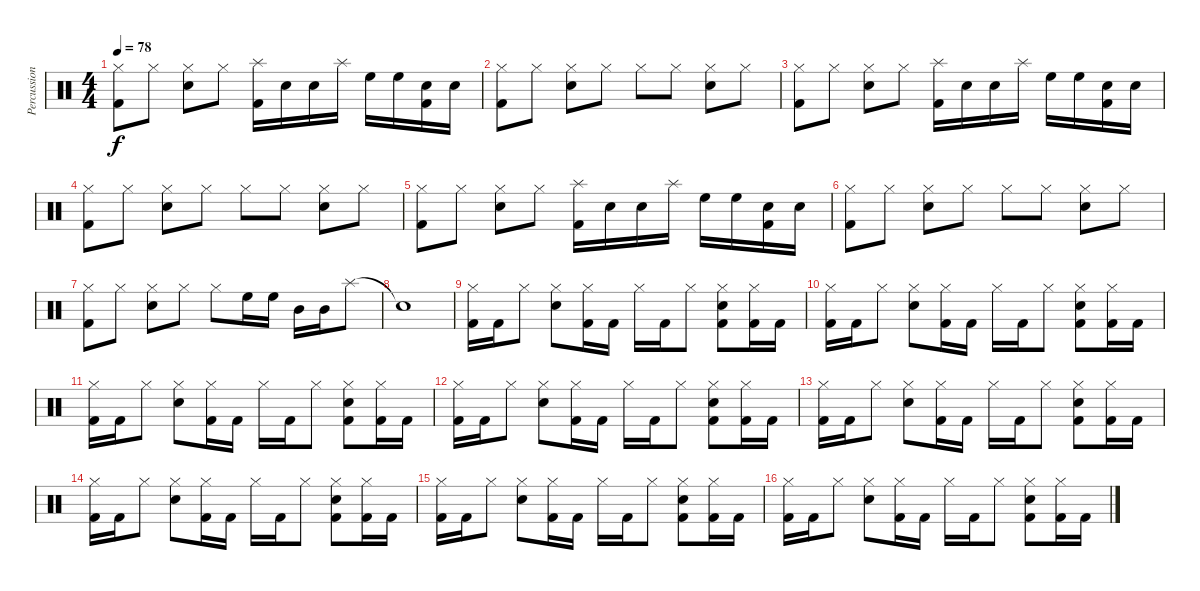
\track ("Percussion" "Percussion") {instrument percussion}
\staff {score}
\articulation defaults
\ts (4 4)
\tempo 78
\clef neutral
\ks c
("Hi-Hat (closed)" "Kick (hit) 2").8{dy f} "Hi-Hat (closed)".8 ("Hi-Hat (closed)" "Snare (hit) 2").8 "Hi-Hat (closed)".8 ("Splash (hit)" "Kick (hit) 2").16 "Snare (hit) 2".16 "Snare (hit) 2".16 "Splash (hit)".16 "High Floor Tom (hit)".16 "High Floor Tom (hit)".16 ("Electric Snare (hit)" "Kick (hit) 2").16 "Electric Snare (hit)".16 |
("Hi-Hat (closed)" "Kick (hit) 2").8 "Hi-Hat (closed)".8 ("Hi-Hat (closed)" "Snare (hit) 2").8 "Hi-Hat (closed)".8 "Hi-Hat (closed)".8 "Hi-Hat (closed)".8 ("Hi-Hat (closed)" "Snare (hit) 2").8 "Hi-Hat (closed)".8 |
("Hi-Hat (closed)" "Kick (hit) 2").8 "Hi-Hat (closed)".8 ("Hi-Hat (closed)" "Snare (hit) 2").8 "Hi-Hat (closed)".8 ("Splash (hit)" "Kick (hit) 2").16 "Snare (hit) 2".16 "Snare (hit) 2".16 "Splash (hit)".16 "High Floor Tom (hit)".16 "High Floor Tom (hit)".16 ("Electric Snare (hit)" "Kick (hit) 2").16 "Electric Snare (hit)".16 |
("Hi-Hat (closed)" "Kick (hit) 2").8 "Hi-Hat (closed)".8 ("Hi-Hat (closed)" "Snare (hit) 2").8 "Hi-Hat (closed)".8 "Hi-Hat (closed)".8 "Hi-Hat (closed)".8 ("Hi-Hat (closed)" "Snare (hit) 2").8 "Hi-Hat (closed)".8 |
("Hi-Hat (closed)" "Kick (hit) 2").8 "Hi-Hat (closed)".8 ("Hi-Hat (closed)" "Snare (hit) 2").8 "Hi-Hat (closed)".8 ("Splash (hit)" "Kick (hit) 2").16 "Snare (hit) 2".16 "Snare (hit) 2".16 "Splash (hit)".16 "High Floor Tom (hit)".16 "High Floor Tom (hit)".16 ("Electric Snare (hit)" "Kick (hit) 2").16 "Electric Snare (hit)".16 |
("Hi-Hat (closed)" "Kick (hit) 2").8 "Hi-Hat (closed)".8 ("Hi-Hat (closed)" "Snare (hit) 2").8 "Hi-Hat (closed)".8 "Hi-Hat (closed)".8 "Hi-Hat (closed)".8 ("Hi-Hat (closed)" "Snare (hit) 2").8 "Hi-Hat (closed)".8 |
("Hi-Hat (closed)" "Kick (hit) 2").8 "Hi-Hat (closed)".8 ("Hi-Hat (closed)" "Snare (hit) 2").8 "Hi-Hat (closed)".8 "Hi-Hat (closed)".8 "High Floor Tom (hit)".16 "High Floor Tom (hit)".16 "Mid Tom (hit)".16 "Mid Tom (hit)".16 "Splash (hit)".8 |
"Snare (hit)"{t}.1 |
("Hi-Hat (closed)" "Kick (hit) 2").16 "Kick (hit) 2".16 "Hi-Hat (closed)".8 ("Hi-Hat (closed)" "Snare (hit) 2").8 ("Hi-Hat (closed)" "Kick (hit) 2").16 "Kick (hit) 2".16 "Hi-Hat (closed)".16 "Kick (hit) 2".16 "Hi-Hat (closed)".8 ("Hi-Hat (closed)" "Snare (hit) 2" "Kick (hit) 2").8 ("Hi-Hat (closed)" "Kick (hit) 2").16 "Kick (hit) 2".16 |
("Hi-Hat (closed)" "Kick (hit) 2").16 "Kick (hit) 2".16 "Hi-Hat (closed)".8 ("Hi-Hat (closed)" "Snare (hit) 2").8 ("Hi-Hat (closed)" "Kick (hit) 2").16 "Kick (hit) 2".16 "Hi-Hat (closed)".16 "Kick (hit) 2".16 "Hi-Hat (closed)".8 ("Hi-Hat (closed)" "Snare (hit) 2" "Kick (hit) 2").8 ("Hi-Hat (closed)" "Kick (hit) 2").16 "Kick (hit) 2".16 |
("Hi-Hat (closed)" "Kick (hit) 2").16 "Kick (hit) 2".16 "Hi-Hat (closed)".8 ("Hi-Hat (closed)" "Snare (hit) 2").8 ("Hi-Hat (closed)" "Kick (hit) 2").16 "Kick (hit) 2".16 "Hi-Hat (closed)".16 "Kick (hit) 2".16 "Hi-Hat (closed)".8 ("Hi-Hat (closed)" "Snare (hit) 2" "Kick (hit) 2").8 ("Hi-Hat (closed)" "Kick (hit) 2").16 "Kick (hit) 2".16 |
("Hi-Hat (closed)" "Kick (hit) 2").16 "Kick (hit) 2".16 "Hi-Hat (closed)".8 ("Hi-Hat (closed)" "Snare (hit) 2").8 ("Hi-Hat (closed)" "Kick (hit) 2").16 "Kick (hit) 2".16 "Hi-Hat (closed)".16 "Kick (hit) 2".16 "Hi-Hat (closed)".8 ("Hi-Hat (closed)" "Snare (hit) 2" "Kick (hit) 2").8 ("Hi-Hat (closed)" "Kick (hit) 2").16 "Kick (hit) 2".16 |
("Hi-Hat (closed)" "Kick (hit) 2").16 "Kick (hit) 2".16 "Hi-Hat (closed)".8 ("Hi-Hat (closed)" "Snare (hit) 2").8 ("Hi-Hat (closed)" "Kick (hit) 2").16 "Kick (hit) 2".16 "Hi-Hat (closed)".16 "Kick (hit) 2".16 "Hi-Hat (closed)".8 ("Hi-Hat (closed)" "Snare (hit) 2" "Kick (hit) 2").8 ("Hi-Hat (closed)" "Kick (hit) 2").16 "Kick (hit) 2".16 |
("Hi-Hat (closed)" "Kick (hit) 2").16 "Kick (hit) 2".16 "Hi-Hat (closed)".8 ("Hi-Hat (closed)" "Snare (hit) 2").8 ("Hi-Hat (closed)" "Kick (hit) 2").16 "Kick (hit) 2".16 "Hi-Hat (closed)".16 "Kick (hit) 2".16 "Hi-Hat (closed)".8 ("Hi-Hat (closed)" "Snare (hit) 2" "Kick (hit) 2").8 ("Hi-Hat (closed)" "Kick (hit) 2").16 "Kick (hit) 2".16 |
("Hi-Hat (closed)" "Kick (hit) 2").16 "Kick (hit) 2".16 "Hi-Hat (closed)".8 ("Hi-Hat (closed)" "Snare (hit) 2").8 ("Hi-Hat (closed)" "Kick (hit) 2").16 "Kick (hit) 2".16 "Hi-Hat (closed)".16 "Kick (hit) 2".16 "Hi-Hat (closed)".8 ("Hi-Hat (closed)" "Snare (hit) 2" "Kick (hit) 2").8 ("Hi-Hat (closed)" "Kick (hit) 2").16 "Kick (hit) 2".16 |
("Hi-Hat (closed)" "Kick (hit) 2").16 "Kick (hit) 2".16 "Hi-Hat (closed)".8 ("Hi-Hat (closed)" "Snare (hit) 2").8 ("Hi-Hat (closed)" "Kick (hit) 2").16 "Kick (hit) 2".16 "Hi-Hat (closed)".16 "Kick (hit) 2".16 "Hi-Hat (closed)".8 ("Hi-Hat (closed)" "Snare (hit) 2" "Kick (hit) 2").8 ("Hi-Hat (closed)" "Kick (hit) 2").16 "Kick (hit) 2".16
